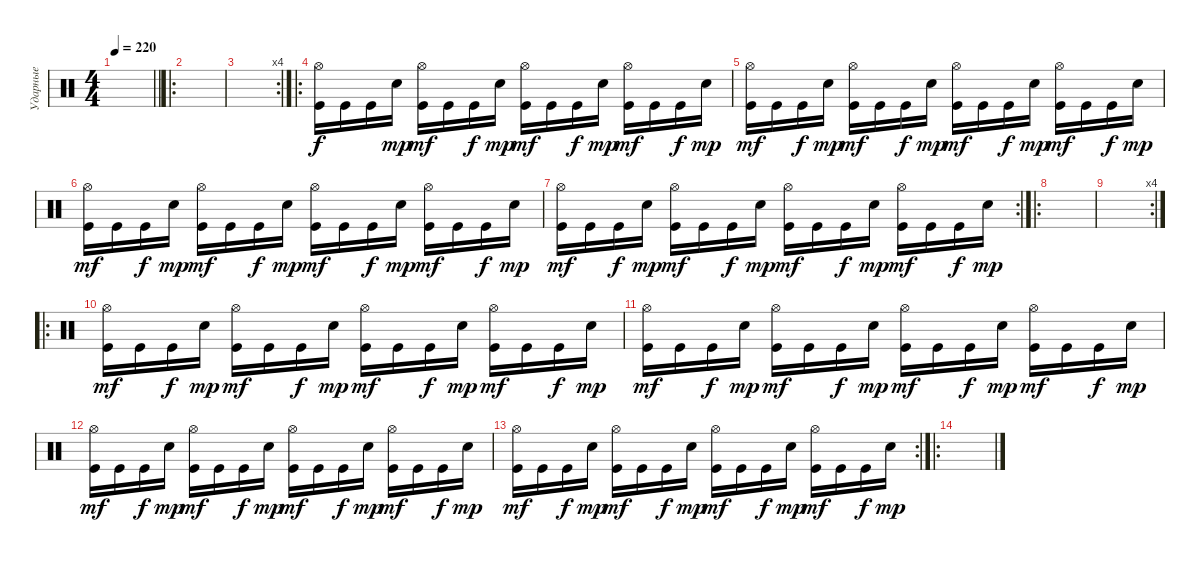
\track ("Ударные" "Ударные") {instrument percussion}
\staff {score}
\articulation defaults
\ts (4 4)
\tempo 220
\clef neutral
\barLineRight lightlight
\ks c
|
\ro
|
\rc 4
|
\ro
("Hi-Hat (open)" "Kick (hit)").16 "Kick (hit)".16 "Kick (hit)".16{dy f} "Electric Snare (hit)".16{dy mp} ("Hi-Hat (open)" "Kick (hit)").16{dy mf} "Kick (hit)".16 "Kick (hit)".16{dy f} "Electric Snare (hit)".16{dy mp} ("Hi-Hat (open)" "Kick (hit)").16{dy mf} "Kick (hit)".16 "Kick (hit)".16{dy f} "Electric Snare (hit)".16{dy mp} ("Hi-Hat (open)" "Kick (hit)").16{dy mf} "Kick (hit)".16 "Kick (hit)".16{dy f} "Electric Snare (hit)".16{dy mp} |
("Hi-Hat (open)" "Kick (hit)").16{dy mf} "Kick (hit)".16 "Kick (hit)".16{dy f} "Electric Snare (hit)".16{dy mp} ("Hi-Hat (open)" "Kick (hit)").16{dy mf} "Kick (hit)".16 "Kick (hit)".16{dy f} "Electric Snare (hit)".16{dy mp} ("Hi-Hat (open)" "Kick (hit)").16{dy mf} "Kick (hit)".16 "Kick (hit)".16{dy f} "Electric Snare (hit)".16{dy mp} ("Hi-Hat (open)" "Kick (hit)").16{dy mf} "Kick (hit)".16 "Kick (hit)".16{dy f} "Electric Snare (hit)".16{dy mp} |
("Hi-Hat (open)" "Kick (hit)").16{dy mf} "Kick (hit)".16 "Kick (hit)".16{dy f} "Electric Snare (hit)".16{dy mp} ("Hi-Hat (open)" "Kick (hit)").16{dy mf} "Kick (hit)".16 "Kick (hit)".16{dy f} "Electric Snare (hit)".16{dy mp} ("Hi-Hat (open)" "Kick (hit)").16{dy mf} "Kick (hit)".16 "Kick (hit)".16{dy f} "Electric Snare (hit)".16{dy mp} ("Hi-Hat (open)" "Kick (hit)").16{dy mf} "Kick (hit)".16 "Kick (hit)".16{dy f} "Electric Snare (hit)".16{dy mp} |
\rc 2
("Hi-Hat (open)" "Kick (hit)").16{dy mf} "Kick (hit)".16 "Kick (hit)".16{dy f} "Electric Snare (hit)".16{dy mp} ("Hi-Hat (open)" "Kick (hit)").16{dy mf} "Kick (hit)".16 "Kick (hit)".16{dy f} "Electric Snare (hit)".16{dy mp} ("Hi-Hat (open)" "Kick (hit)").16{dy mf} "Kick (hit)".16 "Kick (hit)".16{dy f} "Electric Snare (hit)".16{dy mp} ("Hi-Hat (open)" "Kick (hit)").16{dy mf} "Kick (hit)".16 "Kick (hit)".16{dy f} "Electric Snare (hit)".16{dy mp} |
\ro
|
\rc 4
|
\ro
("Hi-Hat (open)" "Kick (hit)").16{dy mf} "Kick (hit)".16 "Kick (hit)".16{dy f} "Electric Snare (hit)".16{dy mp} ("Hi-Hat (open)" "Kick (hit)").16{dy mf} "Kick (hit)".16 "Kick (hit)".16{dy f} "Electric Snare (hit)".16{dy mp} ("Hi-Hat (open)" "Kick (hit)").16{dy mf} "Kick (hit)".16 "Kick (hit)".16{dy f} "Electric Snare (hit)".16{dy mp} ("Hi-Hat (open)" "Kick (hit)").16{dy mf} "Kick (hit)".16 "Kick (hit)".16{dy f} "Electric Snare (hit)".16{dy mp} |
("Hi-Hat (open)" "Kick (hit)").16{dy mf} "Kick (hit)".16 "Kick (hit)".16{dy f} "Electric Snare (hit)".16{dy mp} ("Hi-Hat (open)" "Kick (hit)").16{dy mf} "Kick (hit)".16 "Kick (hit)".16{dy f} "Electric Snare (hit)".16{dy mp} ("Hi-Hat (open)" "Kick (hit)").16{dy mf} "Kick (hit)".16 "Kick (hit)".16{dy f} "Electric Snare (hit)".16{dy mp} ("Hi-Hat (open)" "Kick (hit)").16{dy mf} "Kick (hit)".16 "Kick (hit)".16{dy f} "Electric Snare (hit)".16{dy mp} |
("Hi-Hat (open)" "Kick (hit)").16{dy mf} "Kick (hit)".16 "Kick (hit)".16{dy f} "Electric Snare (hit)".16{dy mp} ("Hi-Hat (open)" "Kick (hit)").16{dy mf} "Kick (hit)".16 "Kick (hit)".16{dy f} "Electric Snare (hit)".16{dy mp} ("Hi-Hat (open)" "Kick (hit)").16{dy mf} "Kick (hit)".16 "Kick (hit)".16{dy f} "Electric Snare (hit)".16{dy mp} ("Hi-Hat (open)" "Kick (hit)").16{dy mf} "Kick (hit)".16 "Kick (hit)".16{dy f} "Electric Snare (hit)".16{dy mp} |
\rc 2
("Hi-Hat (open)" "Kick (hit)").16{dy mf} "Kick (hit)".16 "Kick (hit)".16{dy f} "Electric Snare (hit)".16{dy mp} ("Hi-Hat (open)" "Kick (hit)").16{dy mf} "Kick (hit)".16 "Kick (hit)".16{dy f} "Electric Snare (hit)".16{dy mp} ("Hi-Hat (open)" "Kick (hit)").16{dy mf} "Kick (hit)".16 "Kick (hit)".16{dy f} "Electric Snare (hit)".16{dy mp} ("Hi-Hat (open)" "Kick (hit)").16{dy mf} "Kick (hit)".16 "Kick (hit)".16{dy f} "Electric Snare (hit)".16{dy mp} |
\ro
